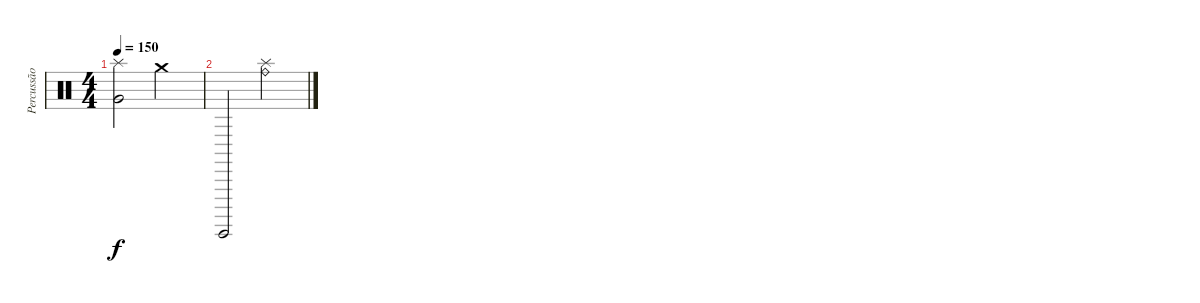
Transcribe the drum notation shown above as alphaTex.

\track ("Percussão" "Percussão") {instrument percussion}
\staff {score}
\articulation defaults
\ts (4 4)
\tempo 150
\clef neutral
\ks c
("Very Low Tom (hit)" "Splash (hit)").2{dy f} "Crash medium (hit)".2 |
"Surdo (hit)".2 ("Ride (bell)" "Splash (hit)").2
